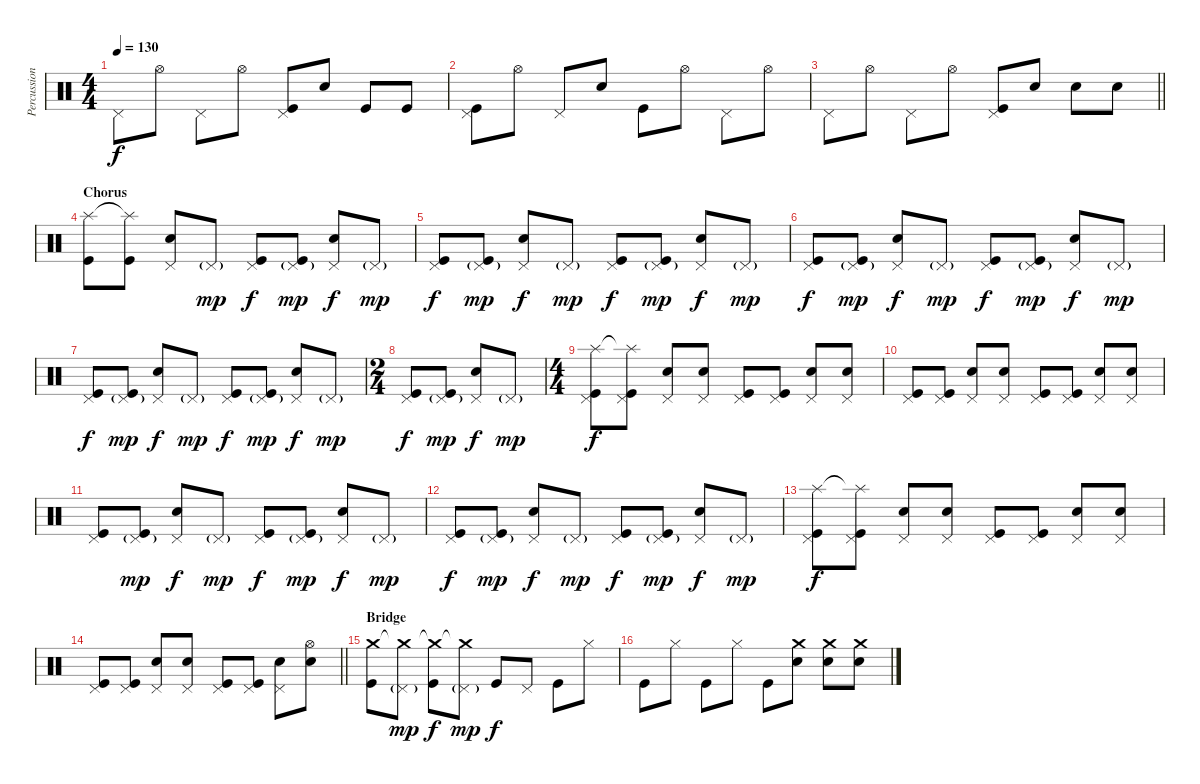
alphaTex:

\track ("Percussion" "Percussion") {instrument percussion}
\staff {score}
\articulation defaults
\ts (4 4)
\tempo 130
\clef neutral
\ks c "Pedal Hi-Hat (hit)".8{dy f} "Hi-Hat (open)".8 "Pedal Hi-Hat (hit)".8 "Hi-Hat (open)".8
("Pedal Hi-Hat (hit)" "Kick (hit)").8 "Snare (hit) 2".8 "Kick (hit)".8 "Kick (hit)".8 |
("Pedal Hi-Hat (hit)" "Kick (hit)").8 "Hi-Hat (open)".8 "Pedal Hi-Hat (hit)".8 "Snare (hit) 2".8 "Kick (hit)".8 "Hi-Hat (open)".8 "Pedal Hi-Hat (hit)".8 "Hi-Hat (open)".8 |
\barLineRight lightlight "Pedal Hi-Hat (hit)".8 "Hi-Hat (open)".8 "Pedal Hi-Hat (hit)".8 "Hi-Hat (open)".8
("Pedal Hi-Hat (hit)" "Kick (hit)").8 "Snare (hit) 2".8 "Snare (hit) 2".8 "Snare (hit) 2".8 |
\section ("" "Chorus")
("Splash (hit)" "Kick (hit)").8 ("Splash (hit)"{t} "Kick (hit)").8 ("Pedal Hi-Hat (hit)" "Snare (hit) 2").8 "Pedal Hi-Hat (hit)"{g}.8{dy mp} ("Pedal Hi-Hat (hit)" "Kick (hit)").8{dy f} ("Pedal Hi-Hat (hit)"{g} "Kick (hit)").8{dy mp} ("Pedal Hi-Hat (hit)" "Snare (hit) 2").8{dy f} "Pedal Hi-Hat (hit)"{g}.8{dy mp} |
("Pedal Hi-Hat (hit)" "Kick (hit)").8{dy f} ("Pedal Hi-Hat (hit)"{g} "Kick (hit)").8{dy mp} ("Pedal Hi-Hat (hit)" "Snare (hit) 2").8{dy f} "Pedal Hi-Hat (hit)"{g}.8{dy mp} ("Pedal Hi-Hat (hit)" "Kick (hit)").8{dy f} ("Pedal Hi-Hat (hit)"{g} "Kick (hit)").8{dy mp} ("Pedal Hi-Hat (hit)" "Snare (hit) 2").8{dy f} "Pedal Hi-Hat (hit)"{g}.8{dy mp} |
("Pedal Hi-Hat (hit)" "Kick (hit)").8{dy f} ("Pedal Hi-Hat (hit)"{g} "Kick (hit)").8{dy mp} ("Pedal Hi-Hat (hit)" "Snare (hit) 2").8{dy f} "Pedal Hi-Hat (hit)"{g}.8{dy mp} ("Pedal Hi-Hat (hit)" "Kick (hit)").8{dy f} ("Pedal Hi-Hat (hit)"{g} "Kick (hit)").8{dy mp} ("Pedal Hi-Hat (hit)" "Snare (hit) 2").8{dy f} "Pedal Hi-Hat (hit)"{g}.8{dy mp} |
("Pedal Hi-Hat (hit)" "Kick (hit)").8{dy f} ("Pedal Hi-Hat (hit)"{g} "Kick (hit)").8{dy mp} ("Pedal Hi-Hat (hit)" "Snare (hit) 2").8{dy f} "Pedal Hi-Hat (hit)"{g}.8{dy mp} ("Pedal Hi-Hat (hit)" "Kick (hit)").8{dy f} ("Pedal Hi-Hat (hit)"{g} "Kick (hit)").8{dy mp} ("Pedal Hi-Hat (hit)" "Snare (hit) 2").8{dy f} "Pedal Hi-Hat (hit)"{g}.8{dy mp} |
\ts (2 4)
("Pedal Hi-Hat (hit)" "Kick (hit)").8{dy f} ("Pedal Hi-Hat (hit)"{g} "Kick (hit)").8{dy mp} ("Pedal Hi-Hat (hit)" "Snare (hit) 2").8{dy f} "Pedal Hi-Hat (hit)"{g}.8{dy mp} |
\ts (4 4)
("Splash (hit)" "Pedal Hi-Hat (hit)" "Kick (hit)").8{dy f} ("Splash (hit)"{t} "Pedal Hi-Hat (hit)" "Kick (hit)").8 ("Pedal Hi-Hat (hit)" "Snare (hit) 2").8 ("Pedal Hi-Hat (hit)" "Snare (hit) 2").8 ("Pedal Hi-Hat (hit)" "Kick (hit)").8 ("Pedal Hi-Hat (hit)" "Kick (hit)").8 ("Pedal Hi-Hat (hit)" "Snare (hit) 2").8 ("Pedal Hi-Hat (hit)" "Snare (hit) 2").8 |
("Pedal Hi-Hat (hit)" "Kick (hit)").8 ("Pedal Hi-Hat (hit)" "Kick (hit)").8 ("Pedal Hi-Hat (hit)" "Snare (hit) 2").8 ("Pedal Hi-Hat (hit)" "Snare (hit) 2").8 ("Pedal Hi-Hat (hit)" "Kick (hit)").8 ("Pedal Hi-Hat (hit)" "Kick (hit)").8 ("Pedal Hi-Hat (hit)" "Snare (hit) 2").8 ("Pedal Hi-Hat (hit)" "Snare (hit) 2").8 |
("Pedal Hi-Hat (hit)" "Kick (hit)").8 ("Pedal Hi-Hat (hit)"{g} "Kick (hit)").8{dy mp} ("Pedal Hi-Hat (hit)" "Snare (hit) 2").8{dy f} "Pedal Hi-Hat (hit)"{g}.8{dy mp} ("Pedal Hi-Hat (hit)" "Kick (hit)").8{dy f} ("Pedal Hi-Hat (hit)"{g} "Kick (hit)").8{dy mp} ("Pedal Hi-Hat (hit)" "Snare (hit) 2").8{dy f} "Pedal Hi-Hat (hit)"{g}.8{dy mp} |
("Pedal Hi-Hat (hit)" "Kick (hit)").8{dy f} ("Pedal Hi-Hat (hit)"{g} "Kick (hit)").8{dy mp} ("Pedal Hi-Hat (hit)" "Snare (hit) 2").8{dy f} "Pedal Hi-Hat (hit)"{g}.8{dy mp} ("Pedal Hi-Hat (hit)" "Kick (hit)").8{dy f} ("Pedal Hi-Hat (hit)"{g} "Kick (hit)").8{dy mp} ("Pedal Hi-Hat (hit)" "Snare (hit) 2").8{dy f} "Pedal Hi-Hat (hit)"{g}.8{dy mp} |
("Splash (hit)" "Pedal Hi-Hat (hit)" "Kick (hit)").8{dy f} ("Splash (hit)"{t} "Pedal Hi-Hat (hit)" "Kick (hit)").8 ("Pedal Hi-Hat (hit)" "Snare (hit) 2").8 ("Pedal Hi-Hat (hit)" "Snare (hit) 2").8 ("Pedal Hi-Hat (hit)" "Kick (hit)").8 ("Pedal Hi-Hat (hit)" "Kick (hit)").8 ("Pedal Hi-Hat (hit)" "Snare (hit) 2").8 ("Pedal Hi-Hat (hit)" "Snare (hit) 2").8 |
\barLineRight lightlight
("Pedal Hi-Hat (hit)" "Kick (hit)").8 ("Pedal Hi-Hat (hit)" "Kick (hit)").8 ("Pedal Hi-Hat (hit)" "Snare (hit) 2").8 ("Pedal Hi-Hat (hit)" "Snare (hit) 2").8 ("Pedal Hi-Hat (hit)" "Kick (hit)").8 ("Pedal Hi-Hat (hit)" "Kick (hit)").8 ("Pedal Hi-Hat (hit)" "Snare (hit) 2").8 ("Hi-Hat (open)" "Snare (hit) 2").8 |
\section ("" "Bridge")
("Crash medium (hit)" "Kick (hit)").8 ("Crash medium (hit)"{t} "Pedal Hi-Hat (hit)"{g}).8{dy mp} ("Crash medium (hit)"{t} "Kick (hit)").8{dy f} ("Crash medium (hit)"{t} "Pedal Hi-Hat (hit)"{g}).8{dy mp} "Kick (hit)".8{dy f} "Pedal Hi-Hat (hit)".8 "Kick (hit)".8 "Hi-Hat (closed)".8 |
"Kick (hit)".8 "Hi-Hat (closed)".8 "Kick (hit)".8 "Hi-Hat (closed)".8 "Kick (hit)".8 ("Crash medium (hit)" "Snare (hit) 2").8 ("Crash medium (hit)" "Snare (hit) 2").8 ("Crash medium (hit)" "Snare (hit) 2").8
